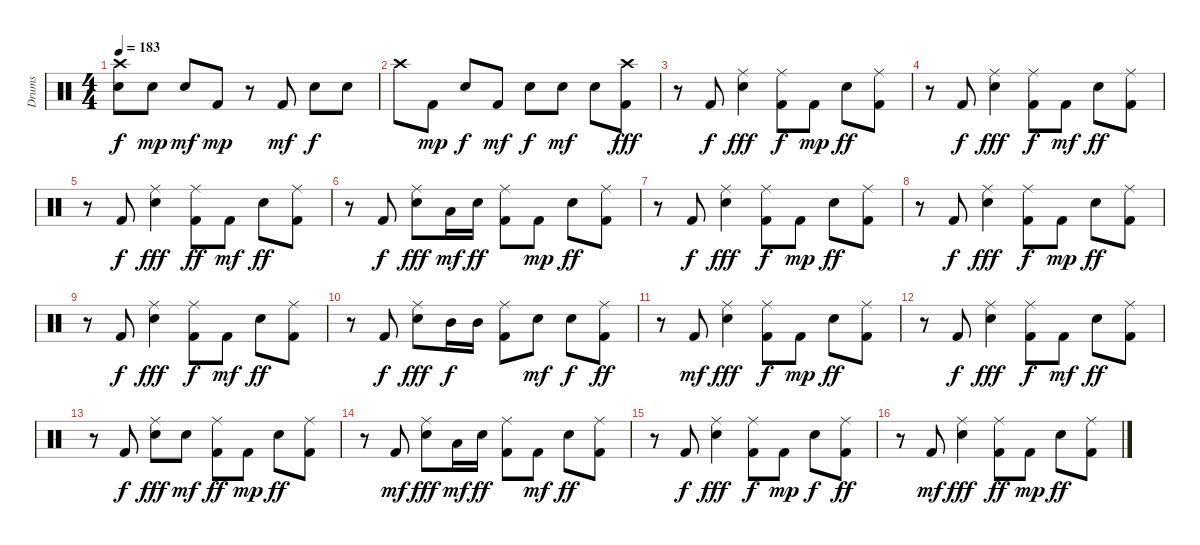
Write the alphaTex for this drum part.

\track ("Drums" "Drums") {instrument percussion}
\staff {score}
\articulation defaults
\ts (4 4)
\tempo 183
\clef neutral
\ks c
("Snare (hit) 2" "Crash high (hit)").8{dy f} "Snare (hit) 2".8{dy mp} "Snare (hit) 2".8{dy mf} "Kick (hit) 2".8{dy mp} r.8 "Kick (hit) 2".8{dy mf} "Snare (hit) 2".8{dy f} "Snare (hit) 2".8 |
"Crash high (hit)".8 "Kick (hit) 2".8{dy mp} "Snare (hit) 2".8{dy f} "Kick (hit) 2".8{dy mf} "Snare (hit) 2".8{dy f} "Snare (hit) 2".8{dy mf} "Snare (hit) 2".8 ("Kick (hit) 2" "Crash high (hit)").8{dy fff} |
r.8 "Kick (hit) 2".8{dy f} ("Snare (hit) 2" "Ride (middle)").4{dy fff} ("Kick (hit) 2" "Ride (middle)").8{dy f} "Kick (hit) 2".8{dy mp} "Snare (hit) 2".8{dy ff} ("Kick (hit) 2" "Ride (middle)").8 |
r.8 "Kick (hit) 2".8{dy f} ("Snare (hit) 2" "Ride (middle)").4{dy fff} ("Kick (hit) 2" "Ride (middle)").8{dy f} "Kick (hit) 2".8{dy mf} "Snare (hit) 2".8{dy ff} ("Kick (hit) 2" "Ride (middle)").8 |
r.8 "Kick (hit) 2".8{dy f} ("Snare (hit) 2" "Ride (middle)").4{dy fff} ("Kick (hit) 2" "Ride (middle)").8{dy ff} "Kick (hit) 2".8{dy mf} "Snare (hit) 2".8{dy ff} ("Kick (hit) 2" "Ride (middle)").8 |
r.8 "Kick (hit) 2".8{dy f} ("Snare (hit) 2" "Ride (middle)").8{dy fff} "Low Floor Tom (hit)".16{dy mf} "Snare (hit) 2".16{dy ff} ("Kick (hit) 2" "Ride (middle)").8 "Kick (hit) 2".8{dy mp} "Snare (hit) 2".8{dy ff} ("Kick (hit) 2" "Ride (middle)").8 |
r.8 "Kick (hit) 2".8{dy f} ("Snare (hit) 2" "Ride (middle)").4{dy fff} ("Kick (hit) 2" "Ride (middle)").8{dy f} "Kick (hit) 2".8{dy mp} "Snare (hit) 2".8{dy ff} ("Kick (hit) 2" "Ride (middle)").8 |
r.8 "Kick (hit) 2".8{dy f} ("Snare (hit) 2" "Ride (middle)").4{dy fff} ("Kick (hit) 2" "Ride (middle)").8{dy f} "Kick (hit) 2".8{dy mp} "Snare (hit) 2".8{dy ff} ("Kick (hit) 2" "Ride (middle)").8 |
r.8 "Kick (hit) 2".8{dy f} ("Snare (hit) 2" "Ride (middle)").4{dy fff} ("Kick (hit) 2" "Ride (middle)").8{dy f} "Kick (hit) 2".8{dy mf} "Snare (hit) 2".8{dy ff} ("Kick (hit) 2" "Ride (middle)").8 |
r.8 "Kick (hit) 2".8{dy f} ("Snare (hit) 2" "Ride (middle)").8{dy fff} "Mid Tom (hit)".16{dy f} "Mid Tom (hit)".16 ("Kick (hit) 2" "Ride (middle)").8 "Snare (hit) 2".8{dy mf} "Snare (hit) 2".8{dy f} ("Kick (hit) 2" "Ride (middle)").8{dy ff} |
r.8 "Kick (hit) 2".8{dy mf} ("Snare (hit) 2" "Ride (middle)").4{dy fff} ("Kick (hit) 2" "Ride (middle)").8{dy f} "Kick (hit) 2".8{dy mp} "Snare (hit) 2".8{dy ff} ("Kick (hit) 2" "Ride (middle)").8 |
r.8 "Kick (hit) 2".8{dy f} ("Snare (hit) 2" "Ride (middle)").4{dy fff} ("Kick (hit) 2" "Ride (middle)").8{dy f} "Kick (hit) 2".8{dy mf} "Snare (hit) 2".8{dy ff} ("Kick (hit) 2" "Ride (middle)").8 |
r.8 "Kick (hit) 2".8{dy f} ("Snare (hit) 2" "Ride (middle)").8{dy fff} "Snare (hit) 2".8{dy mf} ("Kick (hit) 2" "Ride (middle)").8{dy ff} "Kick (hit) 2".8{dy mp} "Snare (hit) 2".8{dy ff} ("Kick (hit) 2" "Ride (middle)").8 |
r.8 "Kick (hit) 2".8{dy mf} ("Snare (hit) 2" "Ride (middle)").8{dy fff} "Low Floor Tom (hit)".16{dy mf} "Snare (hit) 2".16{dy ff} ("Kick (hit) 2" "Ride (middle)").8 "Kick (hit) 2".8{dy mf} "Snare (hit) 2".8{dy ff} ("Kick (hit) 2" "Ride (middle)").8 |
r.8 "Kick (hit) 2".8{dy f} ("Snare (hit) 2" "Ride (middle)").4{dy fff} ("Kick (hit) 2" "Ride (middle)").8{dy f} "Kick (hit) 2".8{dy mp} "Snare (hit) 2".8{dy f} ("Kick (hit) 2" "Ride (middle)").8{dy ff} |
r.8 "Kick (hit) 2".8{dy mf} ("Snare (hit) 2" "Ride (middle)").4{dy fff} ("Kick (hit) 2" "Ride (middle)").8{dy ff} "Kick (hit) 2".8{dy mp} "Snare (hit) 2".8{dy ff} ("Kick (hit) 2" "Ride (middle)").8
